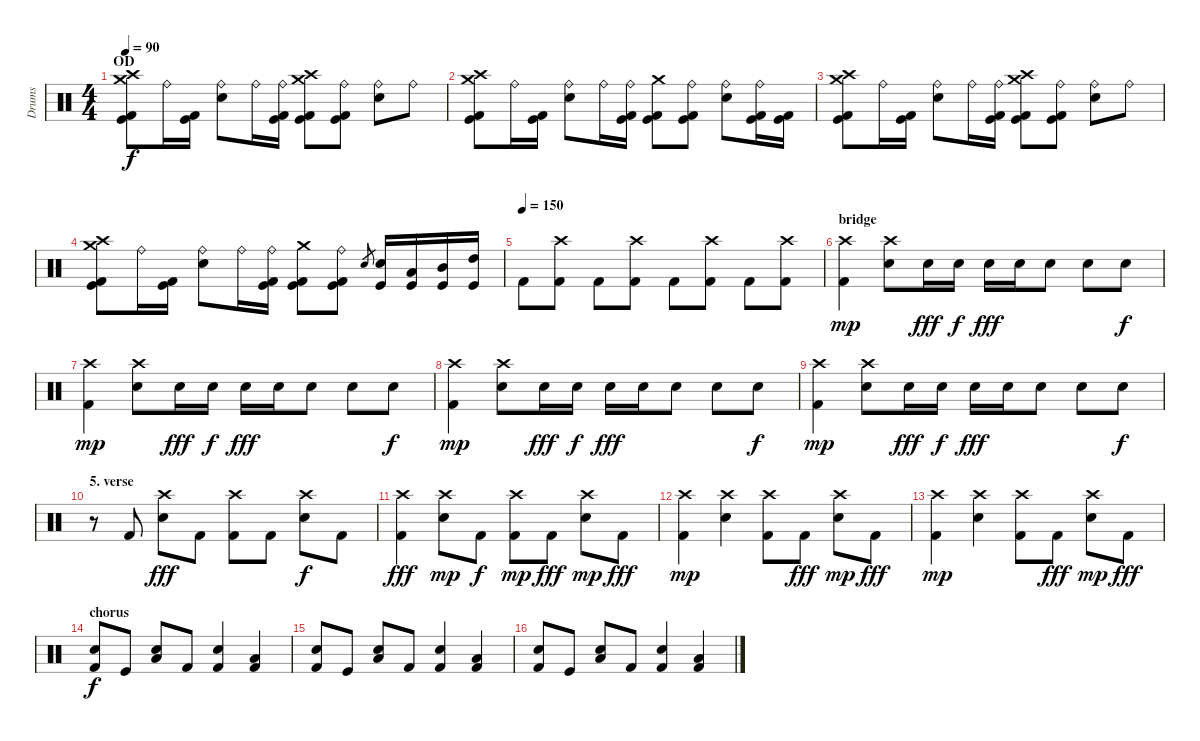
\track ("Drums" "Drums") {instrument percussion}
\staff {score}
\articulation defaults
\ts (4 4)
\section ("" "OD")
\tempo 90
\clef neutral
\ks c
("Crash medium (hit)" "Crash high (hit)" "Kick (hit) 2" "Kick (hit)").8{dy f} "Ride (bell)".16 ("Kick (hit) 2" "Kick (hit)").16 ("Ride (bell)" "Electric Snare (hit)").8 "Ride (bell)".16 ("Ride (bell)" "Kick (hit) 2" "Kick (hit)").16 ("Crash medium (hit)" "Crash high (hit)" "Kick (hit) 2" "Kick (hit)").8 ("Ride (bell)" "Kick (hit) 2" "Kick (hit)").8 ("Ride (bell)" "Electric Snare (hit)").8 "Ride (bell)".8 |
("Crash medium (hit)" "Crash high (hit)" "Kick (hit) 2" "Kick (hit)").8 "Ride (bell)".16 ("Kick (hit) 2" "Kick (hit)").16 ("Ride (bell)" "Electric Snare (hit)").8 "Ride (bell)".16 ("Ride (bell)" "Kick (hit) 2" "Kick (hit)").16 ("Crash medium (hit)" "Kick (hit) 2" "Kick (hit)").8 ("Ride (bell)" "Kick (hit) 2" "Kick (hit)").8 ("Ride (bell)" "Electric Snare (hit)").8 ("Ride (bell)" "Kick (hit) 2" "Kick (hit)").16 ("Kick (hit) 2" "Kick (hit)").16 |
("Crash medium (hit)" "Crash high (hit)" "Kick (hit) 2" "Kick (hit)").8 "Ride (bell)".16 ("Kick (hit) 2" "Kick (hit)").16 ("Ride (bell)" "Electric Snare (hit)").8 "Ride (bell)".16 ("Ride (bell)" "Kick (hit) 2" "Kick (hit)").16 ("Crash medium (hit)" "Crash high (hit)" "Kick (hit) 2" "Kick (hit)").8 ("Ride (bell)" "Kick (hit) 2" "Kick (hit)").8 ("Ride (bell)" "Electric Snare (hit)").8 "Ride (bell)".8 |
("Crash medium (hit)" "Crash high (hit)" "Kick (hit) 2" "Kick (hit)").8 "Ride (bell)".16 ("Kick (hit) 2" "Kick (hit)").16 ("Ride (bell)" "Electric Snare (hit)").8 "Ride (bell)".16 ("Ride (bell)" "Kick (hit) 2" "Kick (hit)").16 ("Crash medium (hit)" "Kick (hit) 2" "Kick (hit)").8 ("Ride (bell)" "Kick (hit) 2" "Kick (hit)").8 "Electric Snare (hit)".8{gr} ("Electric Snare (hit)" "Kick (hit)").16 ("Low Tom (hit)" "Kick (hit)").16 ("Mid Tom (hit)" "Kick (hit)").16 ("High Tom (hit)" "Kick (hit)").16 |
\tempo (150)
"Kick (hit) 2".8 ("Kick (hit) 2" "Crash high (hit)").8 "Kick (hit) 2".8 ("Kick (hit) 2" "Crash high (hit)").8 "Kick (hit) 2".8 ("Kick (hit) 2" "Crash high (hit)").8 "Kick (hit) 2".8 ("Kick (hit) 2" "Crash high (hit)").8 |
\section ("" "bridge")
("Kick (hit) 2" "Crash high (hit)").4{dy mp} ("Electric Snare (hit)" "Crash high (hit)").8 "Electric Snare (hit)".16{dy fff} "Electric Snare (hit)".16{dy f} "Electric Snare (hit)".16{dy fff} "Electric Snare (hit)".16 "Electric Snare (hit)".8 "Electric Snare (hit)".8 "Electric Snare (hit)".8{dy f} |
("Kick (hit) 2" "Crash high (hit)").4{dy mp} ("Electric Snare (hit)" "Crash high (hit)").8 "Electric Snare (hit)".16{dy fff} "Electric Snare (hit)".16{dy f} "Electric Snare (hit)".16{dy fff} "Electric Snare (hit)".16 "Electric Snare (hit)".8 "Electric Snare (hit)".8 "Electric Snare (hit)".8{dy f} |
("Kick (hit) 2" "Crash high (hit)").4{dy mp} ("Electric Snare (hit)" "Crash high (hit)").8 "Electric Snare (hit)".16{dy fff} "Electric Snare (hit)".16{dy f} "Electric Snare (hit)".16{dy fff} "Electric Snare (hit)".16 "Electric Snare (hit)".8 "Electric Snare (hit)".8 "Electric Snare (hit)".8{dy f} |
("Kick (hit) 2" "Crash high (hit)").4{dy mp} ("Electric Snare (hit)" "Crash high (hit)").8 "Electric Snare (hit)".16{dy fff} "Electric Snare (hit)".16{dy f} "Electric Snare (hit)".16{dy fff} "Electric Snare (hit)".16 "Electric Snare (hit)".8 "Electric Snare (hit)".8 "Electric Snare (hit)".8{dy f} |
\section ("" "5. verse")
r.8 "Kick (hit) 2".8 ("Electric Snare (hit)" "Crash high (hit)").8{dy fff} "Kick (hit) 2".8 ("Kick (hit) 2" "Crash high (hit)").8 "Kick (hit) 2".8 ("Electric Snare (hit)" "Crash high (hit)").8{dy f} "Kick (hit) 2".8 |
("Kick (hit) 2" "Crash high (hit)").4{dy fff} ("Electric Snare (hit)" "Crash high (hit)").8{dy mp} "Kick (hit) 2".8{dy f} ("Kick (hit) 2" "Crash high (hit)").8{dy mp} "Kick (hit) 2".8{dy fff} ("Electric Snare (hit)" "Crash high (hit)").8{dy mp} "Kick (hit) 2".8{dy fff} |
("Kick (hit) 2" "Crash high (hit)").4{dy mp} ("Electric Snare (hit)" "Crash high (hit)").4 ("Kick (hit) 2" "Crash high (hit)").8 "Kick (hit) 2".8{dy fff} ("Electric Snare (hit)" "Crash high (hit)").8{dy mp} "Kick (hit) 2".8{dy fff} |
("Kick (hit) 2" "Crash high (hit)").4{dy mp} ("Electric Snare (hit)" "Crash high (hit)").4 ("Kick (hit) 2" "Crash high (hit)").8 "Kick (hit) 2".8{dy fff} ("Electric Snare (hit)" "Crash high (hit)").8{dy mp} "Kick (hit) 2".8{dy fff} |
\section ("" "chorus")
("Kick (hit) 2" "Snare (hit) 2").8{dy f} "Kick (hit)".8 ("Low Tom (hit)" "Snare (hit) 2").8 "Kick (hit) 2".8 ("Kick (hit) 2" "Snare (hit) 2").4 ("Low Tom (hit)" "Kick (hit) 2").4 |
("Kick (hit) 2" "Snare (hit) 2").8 "Kick (hit)".8 ("Low Tom (hit)" "Snare (hit) 2").8 "Kick (hit) 2".8 ("Kick (hit) 2" "Snare (hit) 2").4 ("Low Tom (hit)" "Kick (hit) 2").4 |
("Kick (hit) 2" "Snare (hit) 2").8 "Kick (hit)".8 ("Low Tom (hit)" "Snare (hit) 2").8 "Kick (hit) 2".8 ("Kick (hit) 2" "Snare (hit) 2").4 ("Low Tom (hit)" "Kick (hit) 2").4
